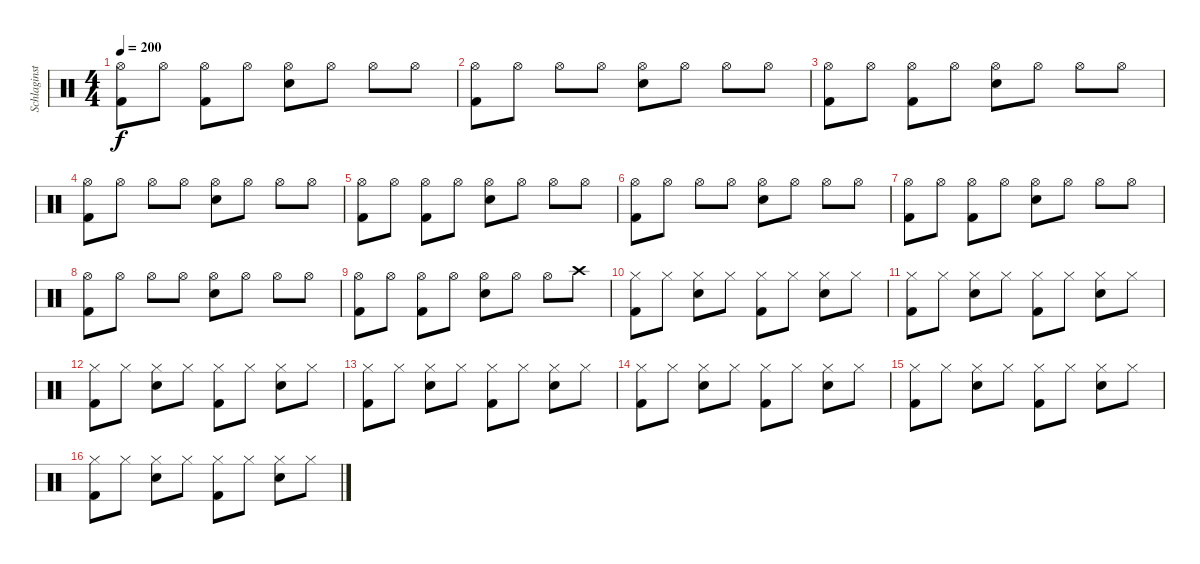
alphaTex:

\track ("Schlaginstrumente - Auswahl" "Schlaginst") {instrument percussion}
\staff {score}
\articulation defaults
\ts (4 4)
\tempo 200
\clef neutral
\ks c
("Hi-Hat (open)" "Kick (hit) 2").8{dy f} "Hi-Hat (open)".8 ("Hi-Hat (open)" "Kick (hit) 2").8 "Hi-Hat (open)".8 ("Hi-Hat (open)" "Snare (hit) 2").8 "Hi-Hat (open)".8 "Hi-Hat (open)".8 "Hi-Hat (open)".8 |
("Hi-Hat (open)" "Kick (hit) 2").8 "Hi-Hat (open)".8 "Hi-Hat (open)".8 "Hi-Hat (open)".8 ("Hi-Hat (open)" "Snare (hit) 2").8 "Hi-Hat (open)".8 "Hi-Hat (open)".8 "Hi-Hat (open)".8 |
("Hi-Hat (open)" "Kick (hit) 2").8 "Hi-Hat (open)".8 ("Hi-Hat (open)" "Kick (hit) 2").8 "Hi-Hat (open)".8 ("Hi-Hat (open)" "Snare (hit) 2").8 "Hi-Hat (open)".8 "Hi-Hat (open)".8 "Hi-Hat (open)".8 |
("Hi-Hat (open)" "Kick (hit) 2").8 "Hi-Hat (open)".8 "Hi-Hat (open)".8 "Hi-Hat (open)".8 ("Hi-Hat (open)" "Snare (hit) 2").8 "Hi-Hat (open)".8 "Hi-Hat (open)".8 "Hi-Hat (open)".8 |
("Hi-Hat (open)" "Kick (hit) 2").8 "Hi-Hat (open)".8 ("Hi-Hat (open)" "Kick (hit) 2").8 "Hi-Hat (open)".8 ("Hi-Hat (open)" "Snare (hit) 2").8 "Hi-Hat (open)".8 "Hi-Hat (open)".8 "Hi-Hat (open)".8 |
("Hi-Hat (open)" "Kick (hit) 2").8 "Hi-Hat (open)".8 "Hi-Hat (open)".8 "Hi-Hat (open)".8 ("Hi-Hat (open)" "Snare (hit) 2").8 "Hi-Hat (open)".8 "Hi-Hat (open)".8 "Hi-Hat (open)".8 |
("Hi-Hat (open)" "Kick (hit) 2").8 "Hi-Hat (open)".8 ("Hi-Hat (open)" "Kick (hit) 2").8 "Hi-Hat (open)".8 ("Hi-Hat (open)" "Snare (hit) 2").8 "Hi-Hat (open)".8 "Hi-Hat (open)".8 "Hi-Hat (open)".8 |
("Hi-Hat (open)" "Kick (hit) 2").8 "Hi-Hat (open)".8 "Hi-Hat (open)".8 "Hi-Hat (open)".8 ("Hi-Hat (open)" "Snare (hit) 2").8 "Hi-Hat (open)".8 "Hi-Hat (open)".8 "Hi-Hat (open)".8 |
("Hi-Hat (open)" "Kick (hit) 2").8 "Hi-Hat (open)".8 ("Hi-Hat (open)" "Kick (hit) 2").8 "Hi-Hat (open)".8 ("Hi-Hat (open)" "Snare (hit) 2").8 "Hi-Hat (open)".8 "Hi-Hat (open)".8 "Crash high (hit)".8 |
("Hi-Hat (closed)" "Kick (hit) 2").8 "Hi-Hat (closed)".8 ("Hi-Hat (closed)" "Snare (hit) 2").8 "Hi-Hat (closed)".8 ("Hi-Hat (closed)" "Kick (hit) 2").8 "Hi-Hat (closed)".8 ("Hi-Hat (closed)" "Snare (hit) 2").8 "Hi-Hat (closed)".8 |
("Hi-Hat (closed)" "Kick (hit) 2").8 "Hi-Hat (closed)".8 ("Hi-Hat (closed)" "Snare (hit) 2").8 "Hi-Hat (closed)".8 ("Hi-Hat (closed)" "Kick (hit) 2").8 "Hi-Hat (closed)".8 ("Hi-Hat (closed)" "Snare (hit) 2").8 "Hi-Hat (closed)".8 |
("Hi-Hat (closed)" "Kick (hit) 2").8 "Hi-Hat (closed)".8 ("Hi-Hat (closed)" "Snare (hit) 2").8 "Hi-Hat (closed)".8 ("Hi-Hat (closed)" "Kick (hit) 2").8 "Hi-Hat (closed)".8 ("Hi-Hat (closed)" "Snare (hit) 2").8 "Hi-Hat (closed)".8 |
("Hi-Hat (closed)" "Kick (hit) 2").8 "Hi-Hat (closed)".8 ("Hi-Hat (closed)" "Snare (hit) 2").8 "Hi-Hat (closed)".8 ("Hi-Hat (closed)" "Kick (hit) 2").8 "Hi-Hat (closed)".8 ("Hi-Hat (closed)" "Snare (hit) 2").8 "Hi-Hat (closed)".8 |
("Hi-Hat (closed)" "Kick (hit) 2").8 "Hi-Hat (closed)".8 ("Hi-Hat (closed)" "Snare (hit) 2").8 "Hi-Hat (closed)".8 ("Hi-Hat (closed)" "Kick (hit) 2").8 "Hi-Hat (closed)".8 ("Hi-Hat (closed)" "Snare (hit) 2").8 "Hi-Hat (closed)".8 |
("Hi-Hat (closed)" "Kick (hit) 2").8 "Hi-Hat (closed)".8 ("Hi-Hat (closed)" "Snare (hit) 2").8 "Hi-Hat (closed)".8 ("Hi-Hat (closed)" "Kick (hit) 2").8 "Hi-Hat (closed)".8 ("Hi-Hat (closed)" "Snare (hit) 2").8 "Hi-Hat (closed)".8 |
("Hi-Hat (closed)" "Kick (hit) 2").8 "Hi-Hat (closed)".8 ("Hi-Hat (closed)" "Snare (hit) 2").8 "Hi-Hat (closed)".8 ("Hi-Hat (closed)" "Kick (hit) 2").8 "Hi-Hat (closed)".8 ("Hi-Hat (closed)" "Snare (hit) 2").8 "Hi-Hat (closed)".8
